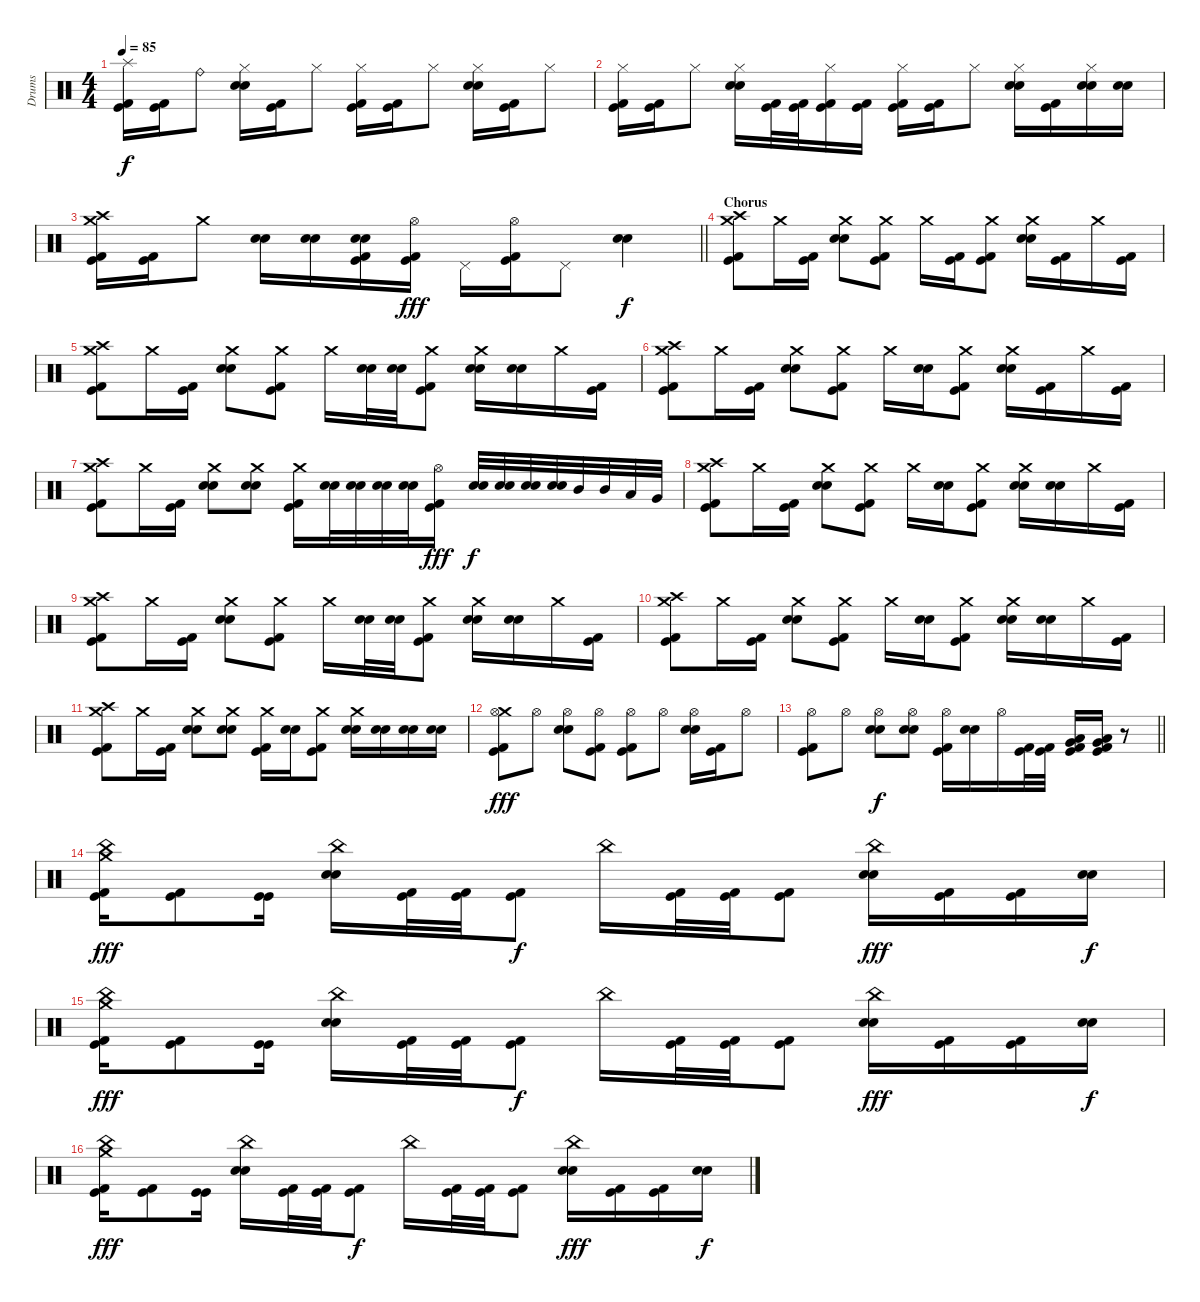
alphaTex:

\track ("Drums" "Drums") {instrument percussion}
\staff {score}
\articulation defaults
\ts (4 4)
\tempo 85
\clef neutral
\ks c
("Splash (hit)" "Kick (hit)" "Kick (hit) 2").16{dy f balance 2} ("Kick (hit)" "Kick (hit) 2").16 "Ride (bell)".8{balance 14} ("Hi-Hat (closed)" "Electric Snare (hit)" "Snare (hit) 2").16{balance 8} ("Kick (hit)" "Kick (hit) 2").16 "Hi-Hat (closed)".8 ("Hi-Hat (closed)" "Kick (hit)" "Kick (hit) 2").16 ("Kick (hit)" "Kick (hit) 2").16 "Hi-Hat (closed)".8 ("Hi-Hat (closed)" "Electric Snare (hit)" "Snare (hit) 2").16 ("Kick (hit)" "Kick (hit) 2").16 "Hi-Hat (closed)".8 |
("Hi-Hat (closed)" "Kick (hit)" "Kick (hit) 2").16 ("Kick (hit)" "Kick (hit) 2").16 "Hi-Hat (closed)".8 ("Hi-Hat (closed)" "Electric Snare (hit)" "Snare (hit) 2").16 ("Kick (hit)" "Kick (hit) 2").32 ("Kick (hit)" "Kick (hit) 2").32 ("Hi-Hat (closed)" "Kick (hit)" "Kick (hit) 2").16 ("Kick (hit)" "Kick (hit) 2").16 ("Hi-Hat (closed)" "Kick (hit)" "Kick (hit) 2").16 ("Kick (hit)" "Kick (hit) 2").16 "Hi-Hat (closed)".8 ("Hi-Hat (closed)" "Electric Snare (hit)" "Snare (hit) 2").16 ("Kick (hit)" "Kick (hit) 2").16 ("Hi-Hat (closed)" "Electric Snare (hit)" "Snare (hit) 2").16 ("Electric Snare (hit)" "Snare (hit) 2").16 |
\barLineRight lightlight
("Crash high (hit)" "Crash medium (hit)" "Kick (hit)" "Kick (hit) 2").16 ("Kick (hit)" "Kick (hit) 2").16 "Crash medium (hit)".8 ("Electric Snare (hit)" "Snare (hit) 2").16 ("Electric Snare (hit)" "Snare (hit) 2").16 ("Electric Snare (hit)" "Snare (hit) 2" "Kick (hit)" "Kick (hit) 2").16 ("Hi-Hat (open)" "Kick (hit)" "Kick (hit) 2").16{dy fff} "Pedal Hi-Hat (hit)".16 ("Hi-Hat (open)" "Kick (hit)" "Kick (hit) 2").16 "Pedal Hi-Hat (hit)".8 ("Electric Snare (hit)" "Snare (hit) 2").4{dy f} |
\section ("" " Chorus")
("Crash high (hit)" "Crash medium (hit)" "Kick (hit)" "Kick (hit) 2").8 "Crash medium (hit)".16 ("Kick (hit)" "Kick (hit) 2").16 ("Crash medium (hit)" "Electric Snare (hit)" "Snare (hit) 2").8 ("Crash medium (hit)" "Kick (hit)" "Kick (hit) 2").8 "Crash medium (hit)".16 ("Kick (hit)" "Kick (hit) 2").16 ("Crash medium (hit)" "Kick (hit)" "Kick (hit) 2").8 ("Crash medium (hit)" "Electric Snare (hit)" "Snare (hit) 2").16 ("Kick (hit)" "Kick (hit) 2").16 "Crash medium (hit)".16 ("Kick (hit)" "Kick (hit) 2").16 |
("Crash high (hit)" "Crash medium (hit)" "Kick (hit)" "Kick (hit) 2").8 "Crash medium (hit)".16 ("Kick (hit)" "Kick (hit) 2").16 ("Crash medium (hit)" "Electric Snare (hit)" "Snare (hit) 2").8 ("Crash medium (hit)" "Kick (hit)" "Kick (hit) 2").8 "Crash medium (hit)".16 ("Electric Snare (hit)" "Snare (hit) 2").32 ("Electric Snare (hit)" "Snare (hit) 2").32 ("Crash medium (hit)" "Kick (hit)" "Kick (hit) 2").8 ("Crash medium (hit)" "Electric Snare (hit)" "Snare (hit) 2").16 ("Electric Snare (hit)" "Snare (hit) 2").16 "Crash medium (hit)".16 ("Kick (hit)" "Kick (hit) 2").16 |
("Crash high (hit)" "Crash medium (hit)" "Kick (hit)" "Kick (hit) 2").8 "Crash medium (hit)".16 ("Kick (hit)" "Kick (hit) 2").16 ("Crash medium (hit)" "Electric Snare (hit)" "Snare (hit) 2").8 ("Crash medium (hit)" "Kick (hit)" "Kick (hit) 2").8 "Crash medium (hit)".16 ("Electric Snare (hit)" "Snare (hit) 2").16 ("Crash medium (hit)" "Kick (hit)" "Kick (hit) 2").8 ("Crash medium (hit)" "Electric Snare (hit)" "Snare (hit) 2").16 ("Kick (hit)" "Kick (hit) 2").16 "Crash medium (hit)".16 ("Kick (hit)" "Kick (hit) 2").16 |
("Crash high (hit)" "Crash medium (hit)" "Kick (hit)" "Kick (hit) 2").8 "Crash medium (hit)".16 ("Kick (hit)" "Kick (hit) 2").16 ("Crash medium (hit)" "Electric Snare (hit)" "Snare (hit) 2").8 ("Crash medium (hit)" "Electric Snare (hit)" "Snare (hit) 2").8 ("Crash medium (hit)" "Kick (hit)" "Kick (hit) 2").16 ("Electric Snare (hit)" "Snare (hit) 2").32 ("Electric Snare (hit)" "Snare (hit) 2").32 ("Electric Snare (hit)" "Snare (hit) 2").32 ("Electric Snare (hit)" "Snare (hit) 2").32 ("Hi-Hat (open)" "Kick (hit)" "Kick (hit) 2").16{dy fff} ("Electric Snare (hit)" "Snare (hit) 2").32{dy f} ("Electric Snare (hit)" "Snare (hit) 2").32 ("Electric Snare (hit)" "Snare (hit) 2").32 ("Electric Snare (hit)" "Snare (hit) 2").32 "Mid Tom (hit)".32 "Mid Tom (hit)".32 "Low Tom (hit)".32 "Very Low Tom (hit)".32 |
("Crash high (hit)" "Crash medium (hit)" "Kick (hit)" "Kick (hit) 2").8 "Crash medium (hit)".16 ("Kick (hit)" "Kick (hit) 2").16 ("Crash medium (hit)" "Electric Snare (hit)" "Snare (hit) 2").8 ("Crash medium (hit)" "Kick (hit)" "Kick (hit) 2").8 "Crash medium (hit)".16 ("Electric Snare (hit)" "Snare (hit) 2").16 ("Crash medium (hit)" "Kick (hit)" "Kick (hit) 2").8 ("Crash medium (hit)" "Electric Snare (hit)" "Snare (hit) 2").16 ("Electric Snare (hit)" "Snare (hit) 2").16 "Crash medium (hit)".16 ("Kick (hit)" "Kick (hit) 2").16 |
("Crash high (hit)" "Crash medium (hit)" "Kick (hit)" "Kick (hit) 2").8 "Crash medium (hit)".16 ("Kick (hit)" "Kick (hit) 2").16 ("Crash medium (hit)" "Electric Snare (hit)" "Snare (hit) 2").8 ("Crash medium (hit)" "Kick (hit)" "Kick (hit) 2").8 "Crash medium (hit)".16 ("Electric Snare (hit)" "Snare (hit) 2").32 ("Electric Snare (hit)" "Snare (hit) 2").32 ("Crash medium (hit)" "Kick (hit)" "Kick (hit) 2").8 ("Crash medium (hit)" "Electric Snare (hit)" "Snare (hit) 2").16 ("Electric Snare (hit)" "Snare (hit) 2").16 "Crash medium (hit)".16 ("Kick (hit)" "Kick (hit) 2").16 |
("Crash high (hit)" "Crash medium (hit)" "Kick (hit)" "Kick (hit) 2").8 "Crash medium (hit)".16 ("Kick (hit)" "Kick (hit) 2").16 ("Crash medium (hit)" "Electric Snare (hit)" "Snare (hit) 2").8 ("Crash medium (hit)" "Kick (hit)" "Kick (hit) 2").8 "Crash medium (hit)".16 ("Electric Snare (hit)" "Snare (hit) 2").16 ("Crash medium (hit)" "Kick (hit)" "Kick (hit) 2").8 ("Crash medium (hit)" "Electric Snare (hit)" "Snare (hit) 2").16 ("Electric Snare (hit)" "Snare (hit) 2").16 "Crash medium (hit)".16 ("Kick (hit)" "Kick (hit) 2").16 |
("Crash high (hit)" "Crash medium (hit)" "Kick (hit)" "Kick (hit) 2").8 "Crash medium (hit)".16 ("Kick (hit)" "Kick (hit) 2").16 ("Crash medium (hit)" "Electric Snare (hit)" "Snare (hit) 2").8 ("Crash medium (hit)" "Electric Snare (hit)" "Snare (hit) 2").8 ("Crash medium (hit)" "Kick (hit)" "Kick (hit) 2").16 ("Electric Snare (hit)" "Snare (hit) 2").16 ("Crash medium (hit)" "Kick (hit)" "Kick (hit) 2").8 ("Crash medium (hit)" "Electric Snare (hit)" "Snare (hit) 2").16 ("Electric Snare (hit)" "Snare (hit) 2").16 ("Electric Snare (hit)" "Snare (hit) 2").16 ("Electric Snare (hit)" "Snare (hit) 2").16 |
("Crash medium (hit)" "Hi-Hat (open)" "Kick (hit)" "Kick (hit) 2").8{dy fff} "Hi-Hat (open)".8 ("Hi-Hat (open)" "Electric Snare (hit)" "Snare (hit) 2").8 ("Hi-Hat (open)" "Kick (hit)" "Kick (hit) 2").8 ("Hi-Hat (open)" "Kick (hit)" "Kick (hit) 2").8 "Hi-Hat (open)".8 ("Hi-Hat (open)" "Electric Snare (hit)" "Snare (hit) 2").16 ("Kick (hit)" "Kick (hit) 2").16 "Hi-Hat (open)".8 |
\barLineRight lightlight
("Hi-Hat (open)" "Kick (hit)" "Kick (hit) 2").8 "Hi-Hat (open)".8 ("Hi-Hat (open)" "Electric Snare (hit)" "Snare (hit) 2").8{dy f} ("Hi-Hat (open)" "Electric Snare (hit)" "Snare (hit) 2").8 ("Hi-Hat (open)" "Kick (hit)" "Kick (hit) 2").16 ("Electric Snare (hit)" "Snare (hit) 2").16 "Hi-Hat (open)".16 ("Kick (hit)" "Kick (hit) 2").32 ("Kick (hit)" "Kick (hit) 2").32 ("Low Tom (hit)" "Very Low Tom (hit)" "Kick (hit)" "Kick (hit) 2").16 ("Very Low Tom (hit)" "Low Floor Tom (hit)" "Kick (hit)" "Kick (hit) 2").16 r.8 |
\section ("" " ")
("Crash medium (hit)" "China (hit)" "Kick (hit)" "Kick (hit) 2").16{dy fff} ("Kick (hit)" "Kick (hit) 2").8 ("Kick (hit)" "Kick (hit)").16 ("China (hit)" "Electric Snare (hit)" "Snare (hit) 2").16 ("Kick (hit)" "Kick (hit) 2").32 ("Kick (hit)" "Kick (hit) 2").32 ("Kick (hit)" "Kick (hit) 2").8{dy f} "China (hit)".16 ("Kick (hit)" "Kick (hit) 2").32 ("Kick (hit)" "Kick (hit) 2").32 ("Kick (hit)" "Kick (hit) 2").8 ("China (hit)" "Electric Snare (hit)" "Snare (hit) 2").16{dy fff} ("Kick (hit)" "Kick (hit) 2").16 ("Kick (hit)" "Kick (hit) 2").16 ("Electric Snare (hit)" "Snare (hit) 2").16{dy f} |
("Crash medium (hit)" "China (hit)" "Kick (hit)" "Kick (hit) 2").16{dy fff} ("Kick (hit)" "Kick (hit) 2").8 ("Kick (hit)" "Kick (hit)").16 ("China (hit)" "Electric Snare (hit)" "Snare (hit) 2").16 ("Kick (hit)" "Kick (hit) 2").32 ("Kick (hit)" "Kick (hit) 2").32 ("Kick (hit)" "Kick (hit) 2").8{dy f} "China (hit)".16 ("Kick (hit)" "Kick (hit) 2").32 ("Kick (hit)" "Kick (hit) 2").32 ("Kick (hit)" "Kick (hit) 2").8 ("China (hit)" "Electric Snare (hit)" "Snare (hit) 2").16{dy fff} ("Kick (hit)" "Kick (hit) 2").16 ("Kick (hit)" "Kick (hit) 2").16 ("Electric Snare (hit)" "Snare (hit) 2").16{dy f} |
("Crash medium (hit)" "China (hit)" "Kick (hit)" "Kick (hit) 2").16{dy fff} ("Kick (hit)" "Kick (hit) 2").8 ("Kick (hit)" "Kick (hit)").16 ("China (hit)" "Electric Snare (hit)" "Snare (hit) 2").16 ("Kick (hit)" "Kick (hit) 2").32 ("Kick (hit)" "Kick (hit) 2").32 ("Kick (hit)" "Kick (hit) 2").8{dy f} "China (hit)".16 ("Kick (hit)" "Kick (hit) 2").32 ("Kick (hit)" "Kick (hit) 2").32 ("Kick (hit)" "Kick (hit) 2").8 ("China (hit)" "Electric Snare (hit)" "Snare (hit) 2").16{dy fff} ("Kick (hit)" "Kick (hit) 2").16 ("Kick (hit)" "Kick (hit) 2").16 ("Electric Snare (hit)" "Snare (hit) 2").16{dy f}
